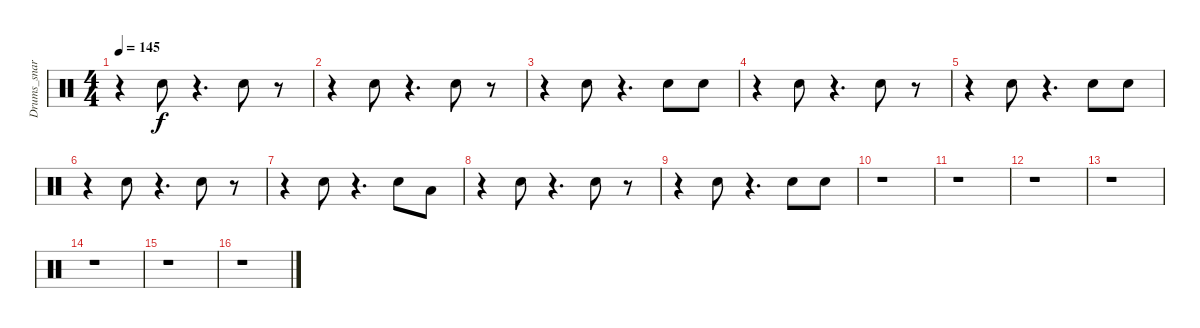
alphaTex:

\track ("Drums_snare&tom" "Drums_snar") {instrument percussion}
\staff {score}
\articulation defaults
\ts (4 4)
\tempo 145
\clef neutral
\ks c
r.4{dy f} "Electric Snare (hit)".8 r.4{d} "Electric Snare (hit)".8 r.8 |
r.4 "Electric Snare (hit)".8 r.4{d} "Electric Snare (hit)".8 r.8 |
r.4 "Electric Snare (hit)".8 r.4{d} "Electric Snare (hit)".8 "Electric Snare (hit)".8 |
r.4 "Electric Snare (hit)".8 r.4{d} "Electric Snare (hit)".8 r.8 |
r.4 "Electric Snare (hit)".8 r.4{d} "Electric Snare (hit)".8 "Electric Snare (hit)".8 |
r.4 "Electric Snare (hit)".8 r.4{d} "Electric Snare (hit)".8 r.8 |
r.4 "Electric Snare (hit)".8 r.4{d} "Electric Snare (hit)".8 "Low Floor Tom (hit)".8 |
r.4 "Electric Snare (hit)".8 r.4{d} "Electric Snare (hit)".8 r.8 |
r.4 "Electric Snare (hit)".8 r.4{d} "Electric Snare (hit)".8 "Electric Snare (hit)".8 |
r.1 |
r.1 |
r.1 |
r.1 |
r.1 |
r.1 |
r.1
